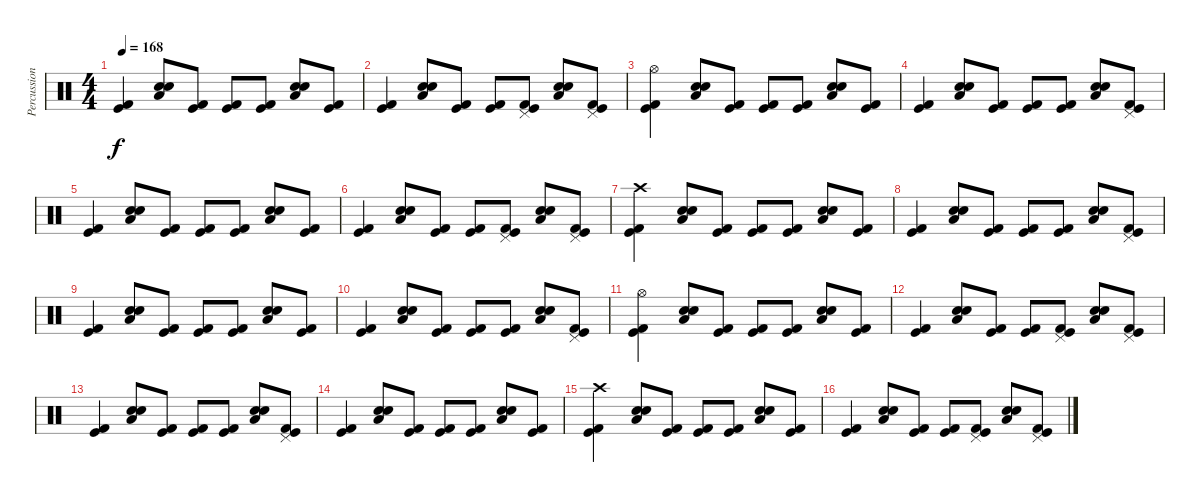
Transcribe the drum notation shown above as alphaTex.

\track ("Percussion" "Percussion") {instrument percussion}
\staff {score}
\articulation defaults
\ts (4 4)
\tempo 168
\clef neutral
\ks c
("Kick (hit)" "Kick (hit) 2").4{dy f} ("Electric Snare (hit)" "Low Floor Tom (hit)" "Snare (hit) 2").8 ("Kick (hit)" "Kick (hit) 2").8 ("Kick (hit)" "Kick (hit) 2").8 ("Kick (hit)" "Kick (hit) 2").8 ("Electric Snare (hit)" "Low Floor Tom (hit)" "Snare (hit) 2").8 ("Kick (hit)" "Kick (hit) 2").8 |
("Kick (hit)" "Kick (hit) 2").4 ("Electric Snare (hit)" "Low Floor Tom (hit)" "Snare (hit) 2").8 ("Kick (hit)" "Kick (hit) 2").8 ("Kick (hit)" "Kick (hit) 2").8 ("Pedal Hi-Hat (hit)" "Kick (hit)" "Kick (hit) 2").8 ("Electric Snare (hit)" "Low Floor Tom (hit)" "Snare (hit) 2").8 ("Pedal Hi-Hat (hit)" "Kick (hit)" "Kick (hit) 2").8 |
("Hi-Hat (open)" "Kick (hit)" "Kick (hit) 2").4 ("Electric Snare (hit)" "Low Floor Tom (hit)" "Snare (hit) 2").8 ("Kick (hit)" "Kick (hit) 2").8 ("Kick (hit)" "Kick (hit) 2").8 ("Kick (hit)" "Kick (hit) 2").8 ("Electric Snare (hit)" "Low Floor Tom (hit)" "Snare (hit) 2").8 ("Kick (hit)" "Kick (hit) 2").8 |
("Kick (hit)" "Kick (hit) 2").4 ("Electric Snare (hit)" "Low Floor Tom (hit)" "Snare (hit) 2").8 ("Kick (hit)" "Kick (hit) 2").8 ("Kick (hit)" "Kick (hit) 2").8 ("Kick (hit)" "Kick (hit) 2").8 ("Electric Snare (hit)" "Low Floor Tom (hit)" "Snare (hit) 2").8 ("Pedal Hi-Hat (hit)" "Kick (hit)" "Kick (hit) 2").8 |
("Kick (hit)" "Kick (hit) 2").4 ("Electric Snare (hit)" "Low Floor Tom (hit)" "Snare (hit) 2").8 ("Kick (hit)" "Kick (hit) 2").8 ("Kick (hit)" "Kick (hit) 2").8 ("Kick (hit)" "Kick (hit) 2").8 ("Electric Snare (hit)" "Low Floor Tom (hit)" "Snare (hit) 2").8 ("Kick (hit)" "Kick (hit) 2").8 |
("Kick (hit)" "Kick (hit) 2").4 ("Electric Snare (hit)" "Low Floor Tom (hit)" "Snare (hit) 2").8 ("Kick (hit)" "Kick (hit) 2").8 ("Kick (hit)" "Kick (hit) 2").8 ("Pedal Hi-Hat (hit)" "Kick (hit)" "Kick (hit) 2").8 ("Electric Snare (hit)" "Low Floor Tom (hit)" "Snare (hit) 2").8 ("Pedal Hi-Hat (hit)" "Kick (hit)" "Kick (hit) 2").8 |
("Crash high (hit)" "Kick (hit)" "Kick (hit) 2").4 ("Electric Snare (hit)" "Low Floor Tom (hit)" "Snare (hit) 2").8 ("Kick (hit)" "Kick (hit) 2").8 ("Kick (hit)" "Kick (hit) 2").8 ("Kick (hit)" "Kick (hit) 2").8 ("Electric Snare (hit)" "Low Floor Tom (hit)" "Snare (hit) 2").8 ("Kick (hit)" "Kick (hit) 2").8 |
("Kick (hit)" "Kick (hit) 2").4 ("Electric Snare (hit)" "Low Floor Tom (hit)" "Snare (hit) 2").8 ("Kick (hit)" "Kick (hit) 2").8 ("Kick (hit)" "Kick (hit) 2").8 ("Kick (hit)" "Kick (hit) 2").8 ("Electric Snare (hit)" "Low Floor Tom (hit)" "Snare (hit) 2").8 ("Pedal Hi-Hat (hit)" "Kick (hit)" "Kick (hit) 2").8 |
("Kick (hit)" "Kick (hit) 2").4 ("Electric Snare (hit)" "Low Floor Tom (hit)" "Snare (hit) 2").8 ("Kick (hit)" "Kick (hit) 2").8 ("Kick (hit)" "Kick (hit) 2").8 ("Kick (hit)" "Kick (hit) 2").8 ("Electric Snare (hit)" "Low Floor Tom (hit)" "Snare (hit) 2").8 ("Kick (hit)" "Kick (hit) 2").8 |
("Kick (hit)" "Kick (hit) 2").4 ("Electric Snare (hit)" "Low Floor Tom (hit)" "Snare (hit) 2").8 ("Kick (hit)" "Kick (hit) 2").8 ("Kick (hit)" "Kick (hit) 2").8 ("Kick (hit)" "Kick (hit) 2").8 ("Electric Snare (hit)" "Low Floor Tom (hit)" "Snare (hit) 2").8 ("Pedal Hi-Hat (hit)" "Kick (hit)" "Kick (hit) 2").8 |
("Hi-Hat (open)" "Kick (hit)" "Kick (hit) 2").4 ("Electric Snare (hit)" "Low Floor Tom (hit)" "Snare (hit) 2").8 ("Kick (hit)" "Kick (hit) 2").8 ("Kick (hit)" "Kick (hit) 2").8 ("Kick (hit)" "Kick (hit) 2").8 ("Electric Snare (hit)" "Low Floor Tom (hit)" "Snare (hit) 2").8 ("Kick (hit)" "Kick (hit) 2").8 |
("Kick (hit)" "Kick (hit) 2").4 ("Electric Snare (hit)" "Low Floor Tom (hit)" "Snare (hit) 2").8 ("Kick (hit)" "Kick (hit) 2").8 ("Kick (hit)" "Kick (hit) 2").8 ("Pedal Hi-Hat (hit)" "Kick (hit)" "Kick (hit) 2").8 ("Electric Snare (hit)" "Low Floor Tom (hit)" "Snare (hit) 2").8 ("Pedal Hi-Hat (hit)" "Kick (hit)" "Kick (hit) 2").8 |
("Kick (hit)" "Kick (hit) 2").4 ("Electric Snare (hit)" "Low Floor Tom (hit)" "Snare (hit) 2").8 ("Kick (hit)" "Kick (hit) 2").8 ("Kick (hit)" "Kick (hit) 2").8 ("Kick (hit)" "Kick (hit) 2").8 ("Electric Snare (hit)" "Low Floor Tom (hit)" "Snare (hit) 2").8 ("Pedal Hi-Hat (hit)" "Kick (hit)" "Kick (hit) 2").8 |
("Kick (hit)" "Kick (hit) 2").4 ("Electric Snare (hit)" "Low Floor Tom (hit)" "Snare (hit) 2").8 ("Kick (hit)" "Kick (hit) 2").8 ("Kick (hit)" "Kick (hit) 2").8 ("Kick (hit)" "Kick (hit) 2").8 ("Electric Snare (hit)" "Low Floor Tom (hit)" "Snare (hit) 2").8 ("Kick (hit)" "Kick (hit) 2").8 |
("Crash high (hit)" "Kick (hit)" "Kick (hit) 2").4 ("Electric Snare (hit)" "Low Floor Tom (hit)" "Snare (hit) 2").8 ("Kick (hit)" "Kick (hit) 2").8 ("Kick (hit)" "Kick (hit) 2").8 ("Kick (hit)" "Kick (hit) 2").8 ("Electric Snare (hit)" "Low Floor Tom (hit)" "Snare (hit) 2").8 ("Kick (hit)" "Kick (hit) 2").8 |
("Kick (hit)" "Kick (hit) 2").4 ("Electric Snare (hit)" "Low Floor Tom (hit)" "Snare (hit) 2").8 ("Kick (hit)" "Kick (hit) 2").8 ("Kick (hit)" "Kick (hit) 2").8 ("Pedal Hi-Hat (hit)" "Kick (hit)" "Kick (hit) 2").8 ("Electric Snare (hit)" "Low Floor Tom (hit)" "Snare (hit) 2").8 ("Pedal Hi-Hat (hit)" "Kick (hit)" "Kick (hit) 2").8
